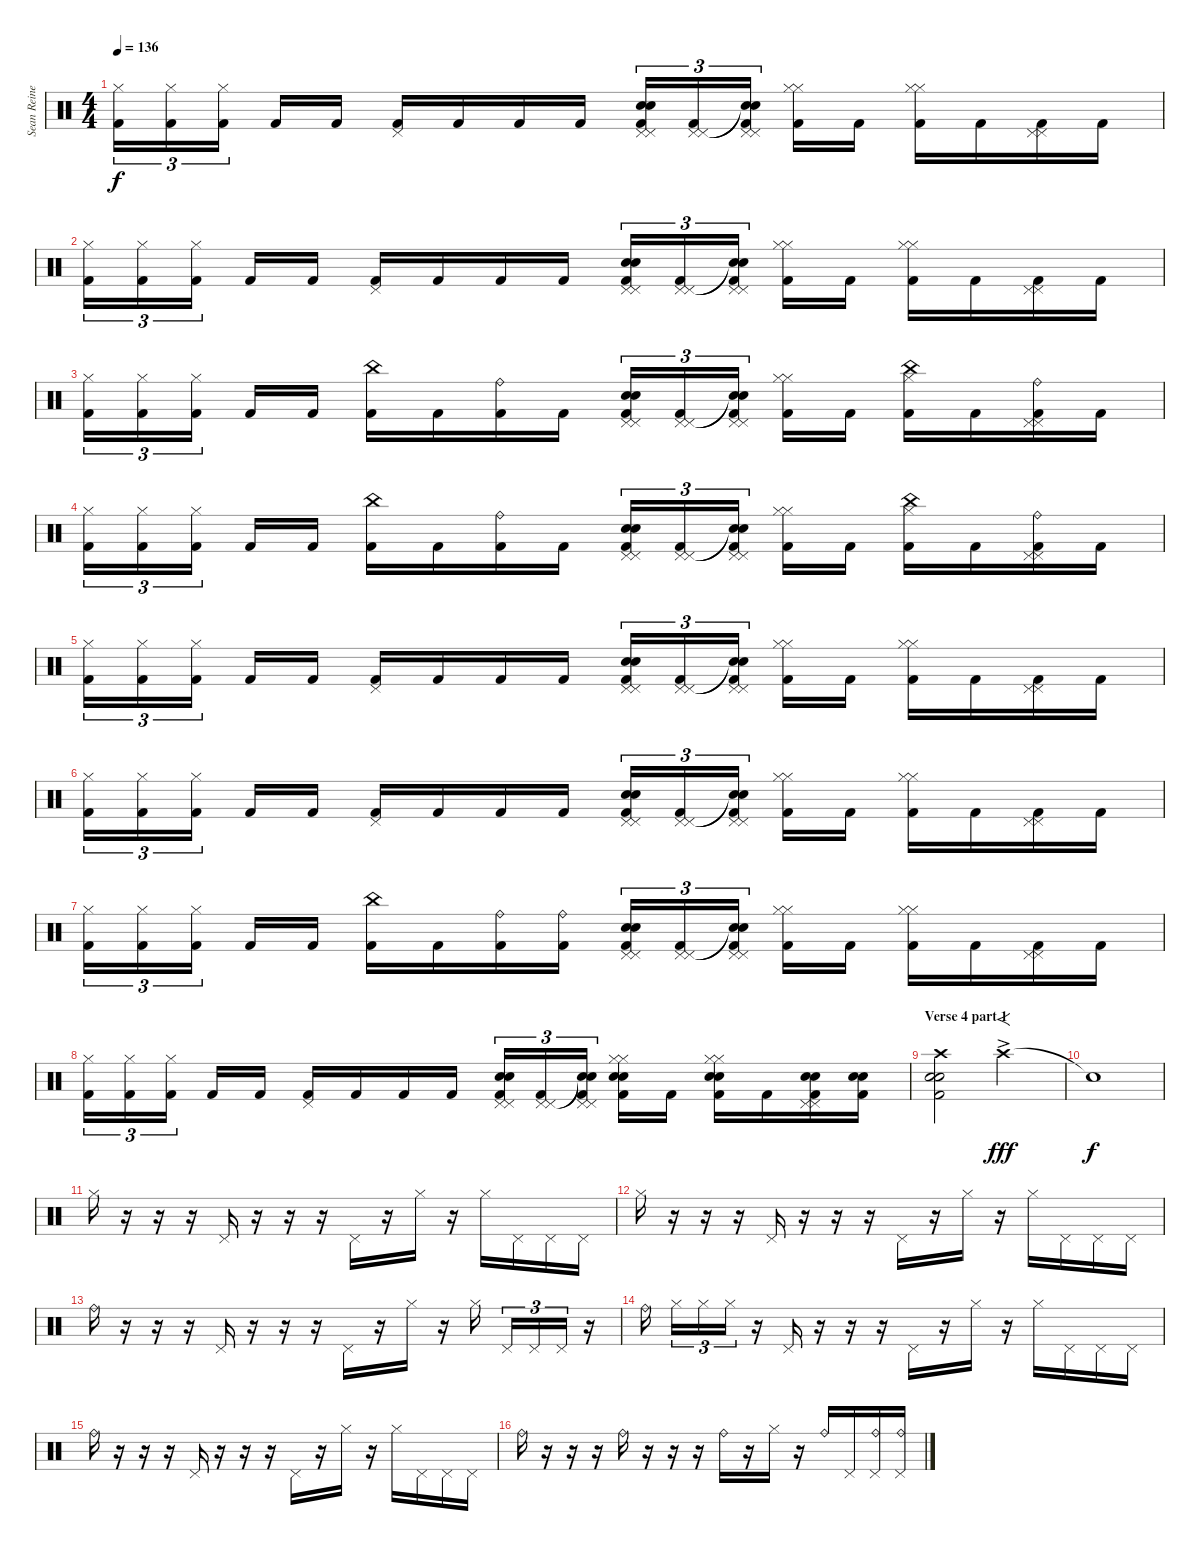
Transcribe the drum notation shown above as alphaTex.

\track ("Sean Reinert" "Sean Reine") {instrument percussion}
\staff {score}
\articulation defaults
\ts (4 4)
\tempo 136
\clef neutral
\ks c
("Hi-Hat (closed)" "Kick (hit) 2").16{tu (3 2) dy f} ("Hi-Hat (closed)" "Kick (hit) 2").16{tu (3 2)} ("Hi-Hat (closed)" "Kick (hit) 2").16{tu (3 2)} "Kick (hit) 2".16 "Kick (hit) 2".16 ("Pedal Hi-Hat (hit)" "Kick (hit) 2").16 "Kick (hit) 2".16 "Kick (hit) 2".16 "Kick (hit) 2".16 ("Electric Snare (hit)" "Snare (hit) 2" "Pedal Hi-Hat (hit)" "Pedal Hi-Hat (hit)" "Kick (hit) 2").16{tu (3 2)} ("Pedal Hi-Hat (hit)" "Pedal Hi-Hat (hit)" "Kick (hit) 2").16{tu (3 2)} ("Snare (hit)"{t} "Snare (hit)"{t} "Pedal Hi-Hat (hit)" "Pedal Hi-Hat (hit)" "Kick (hit) 2").16{tu (3 2)} ("Hi-Hat (closed)" "Hi-Hat (closed)" "Kick (hit) 2").16 "Kick (hit) 2".16 ("Hi-Hat (closed)" "Hi-Hat (closed)" "Kick (hit) 2").16 "Kick (hit) 2".16 ("Pedal Hi-Hat (hit)" "Pedal Hi-Hat (hit)" "Kick (hit) 2").16 "Kick (hit) 2".16 |
("Hi-Hat (closed)" "Kick (hit) 2").16{tu (3 2)} ("Hi-Hat (closed)" "Kick (hit) 2").16{tu (3 2)} ("Hi-Hat (closed)" "Kick (hit) 2").16{tu (3 2)} "Kick (hit) 2".16 "Kick (hit) 2".16 ("Pedal Hi-Hat (hit)" "Kick (hit) 2").16 "Kick (hit) 2".16 "Kick (hit) 2".16 "Kick (hit) 2".16 ("Electric Snare (hit)" "Snare (hit) 2" "Pedal Hi-Hat (hit)" "Pedal Hi-Hat (hit)" "Kick (hit) 2").16{tu (3 2)} ("Pedal Hi-Hat (hit)" "Pedal Hi-Hat (hit)" "Kick (hit) 2").16{tu (3 2)} ("Snare (hit)"{t} "Snare (hit)"{t} "Pedal Hi-Hat (hit)" "Pedal Hi-Hat (hit)" "Kick (hit) 2").16{tu (3 2)} ("Hi-Hat (closed)" "Hi-Hat (closed)" "Kick (hit) 2").16 "Kick (hit) 2".16 ("Hi-Hat (closed)" "Hi-Hat (closed)" "Kick (hit) 2").16 "Kick (hit) 2".16 ("Pedal Hi-Hat (hit)" "Pedal Hi-Hat (hit)" "Kick (hit) 2").16 "Kick (hit) 2".16 |
("Hi-Hat (closed)" "Kick (hit) 2").16{tu (3 2)} ("Hi-Hat (closed)" "Kick (hit) 2").16{tu (3 2)} ("Hi-Hat (closed)" "Kick (hit) 2").16{tu (3 2)} "Kick (hit) 2".16 "Kick (hit) 2".16 ("China (hit)" "Kick (hit) 2").16 "Kick (hit) 2".16 ("Ride (bell)" "Kick (hit) 2").16 "Kick (hit) 2".16 ("Electric Snare (hit)" "Snare (hit) 2" "Pedal Hi-Hat (hit)" "Pedal Hi-Hat (hit)" "Kick (hit) 2").16{tu (3 2)} ("Pedal Hi-Hat (hit)" "Pedal Hi-Hat (hit)" "Kick (hit) 2").16{tu (3 2)} ("Snare (hit)"{t} "Snare (hit)"{t} "Pedal Hi-Hat (hit)" "Pedal Hi-Hat (hit)" "Kick (hit) 2").16{tu (3 2)} ("Hi-Hat (closed)" "Hi-Hat (closed)" "Kick (hit) 2").16 "Kick (hit) 2".16 ("China (hit)" "Hi-Hat (closed)" "Kick (hit) 2").16 "Kick (hit) 2".16 ("Ride (bell)" "Pedal Hi-Hat (hit)" "Pedal Hi-Hat (hit)" "Kick (hit) 2").16 "Kick (hit) 2".16 |
("Hi-Hat (closed)" "Kick (hit) 2").16{tu (3 2)} ("Hi-Hat (closed)" "Kick (hit) 2").16{tu (3 2)} ("Hi-Hat (closed)" "Kick (hit) 2").16{tu (3 2)} "Kick (hit) 2".16 "Kick (hit) 2".16 ("China (hit)" "Kick (hit) 2").16 "Kick (hit) 2".16 ("Ride (bell)" "Kick (hit) 2").16 "Kick (hit) 2".16 ("Electric Snare (hit)" "Snare (hit) 2" "Pedal Hi-Hat (hit)" "Pedal Hi-Hat (hit)" "Kick (hit) 2").16{tu (3 2)} ("Pedal Hi-Hat (hit)" "Pedal Hi-Hat (hit)" "Kick (hit) 2").16{tu (3 2)} ("Snare (hit)"{t} "Snare (hit)"{t} "Pedal Hi-Hat (hit)" "Pedal Hi-Hat (hit)" "Kick (hit) 2").16{tu (3 2)} ("Hi-Hat (closed)" "Hi-Hat (closed)" "Kick (hit) 2").16 "Kick (hit) 2".16 ("China (hit)" "Hi-Hat (closed)" "Kick (hit) 2").16 "Kick (hit) 2".16 ("Ride (bell)" "Pedal Hi-Hat (hit)" "Pedal Hi-Hat (hit)" "Kick (hit) 2").16 "Kick (hit) 2".16 |
("Hi-Hat (closed)" "Kick (hit) 2").16{tu (3 2)} ("Hi-Hat (closed)" "Kick (hit) 2").16{tu (3 2)} ("Hi-Hat (closed)" "Kick (hit) 2").16{tu (3 2)} "Kick (hit) 2".16 "Kick (hit) 2".16 ("Pedal Hi-Hat (hit)" "Kick (hit) 2").16 "Kick (hit) 2".16 "Kick (hit) 2".16 "Kick (hit) 2".16 ("Electric Snare (hit)" "Snare (hit) 2" "Pedal Hi-Hat (hit)" "Pedal Hi-Hat (hit)" "Kick (hit) 2").16{tu (3 2)} ("Pedal Hi-Hat (hit)" "Pedal Hi-Hat (hit)" "Kick (hit) 2").16{tu (3 2)} ("Snare (hit)"{t} "Snare (hit)"{t} "Pedal Hi-Hat (hit)" "Pedal Hi-Hat (hit)" "Kick (hit) 2").16{tu (3 2)} ("Hi-Hat (closed)" "Hi-Hat (closed)" "Kick (hit) 2").16 "Kick (hit) 2".16 ("Hi-Hat (closed)" "Hi-Hat (closed)" "Kick (hit) 2").16 "Kick (hit) 2".16 ("Pedal Hi-Hat (hit)" "Pedal Hi-Hat (hit)" "Kick (hit) 2").16 "Kick (hit) 2".16 |
("Hi-Hat (closed)" "Kick (hit) 2").16{tu (3 2)} ("Hi-Hat (closed)" "Kick (hit) 2").16{tu (3 2)} ("Hi-Hat (closed)" "Kick (hit) 2").16{tu (3 2)} "Kick (hit) 2".16 "Kick (hit) 2".16 ("Pedal Hi-Hat (hit)" "Kick (hit) 2").16 "Kick (hit) 2".16 "Kick (hit) 2".16 "Kick (hit) 2".16 ("Electric Snare (hit)" "Snare (hit) 2" "Pedal Hi-Hat (hit)" "Pedal Hi-Hat (hit)" "Kick (hit) 2").16{tu (3 2)} ("Pedal Hi-Hat (hit)" "Pedal Hi-Hat (hit)" "Kick (hit) 2").16{tu (3 2)} ("Snare (hit)"{t} "Snare (hit)"{t} "Pedal Hi-Hat (hit)" "Pedal Hi-Hat (hit)" "Kick (hit) 2").16{tu (3 2)} ("Hi-Hat (closed)" "Hi-Hat (closed)" "Kick (hit) 2").16 "Kick (hit) 2".16 ("Hi-Hat (closed)" "Hi-Hat (closed)" "Kick (hit) 2").16 "Kick (hit) 2".16 ("Pedal Hi-Hat (hit)" "Pedal Hi-Hat (hit)" "Kick (hit) 2").16 "Kick (hit) 2".16 |
("Hi-Hat (closed)" "Kick (hit) 2").16{tu (3 2)} ("Hi-Hat (closed)" "Kick (hit) 2").16{tu (3 2)} ("Hi-Hat (closed)" "Kick (hit) 2").16{tu (3 2)} "Kick (hit) 2".16 "Kick (hit) 2".16 ("China (hit)" "Kick (hit) 2").16 "Kick (hit) 2".16 ("Ride (bell)" "Kick (hit) 2").16 ("Ride (bell)" "Kick (hit) 2").16 ("Electric Snare (hit)" "Snare (hit) 2" "Pedal Hi-Hat (hit)" "Pedal Hi-Hat (hit)" "Kick (hit) 2").16{tu (3 2)} ("Pedal Hi-Hat (hit)" "Pedal Hi-Hat (hit)" "Kick (hit) 2").16{tu (3 2)} ("Snare (hit)"{t} "Snare (hit)"{t} "Pedal Hi-Hat (hit)" "Pedal Hi-Hat (hit)" "Kick (hit) 2").16{tu (3 2)} ("Hi-Hat (closed)" "Hi-Hat (closed)" "Kick (hit) 2").16 "Kick (hit) 2".16 ("Hi-Hat (closed)" "Hi-Hat (closed)" "Kick (hit) 2").16 "Kick (hit) 2".16 ("Pedal Hi-Hat (hit)" "Pedal Hi-Hat (hit)" "Kick (hit) 2").16 "Kick (hit) 2".16 |
("Hi-Hat (closed)" "Kick (hit) 2").16{tu (3 2)} ("Hi-Hat (closed)" "Kick (hit) 2").16{tu (3 2)} ("Hi-Hat (closed)" "Kick (hit) 2").16{tu (3 2)} "Kick (hit) 2".16 "Kick (hit) 2".16 ("Pedal Hi-Hat (hit)" "Kick (hit) 2").16 "Kick (hit) 2".16 "Kick (hit) 2".16 "Kick (hit) 2".16 ("Electric Snare (hit)" "Snare (hit) 2" "Pedal Hi-Hat (hit)" "Pedal Hi-Hat (hit)" "Kick (hit) 2").16{tu (3 2)} ("Pedal Hi-Hat (hit)" "Pedal Hi-Hat (hit)" "Kick (hit) 2").16{tu (3 2)} ("Snare (hit)"{t} "Snare (hit)"{t} "Pedal Hi-Hat (hit)" "Pedal Hi-Hat (hit)" "Kick (hit) 2").16{tu (3 2)} ("Hi-Hat (closed)" "Hi-Hat (closed)" "Electric Snare (hit)" "Snare (hit) 2" "Kick (hit) 2").16 "Kick (hit) 2".16 ("Hi-Hat (closed)" "Hi-Hat (closed)" "Electric Snare (hit)" "Snare (hit) 2" "Kick (hit) 2").16 "Kick (hit) 2".16 ("Electric Snare (hit)" "Snare (hit) 2" "Pedal Hi-Hat (hit)" "Pedal Hi-Hat (hit)" "Kick (hit) 2").16 ("Electric Snare (hit)" "Snare (hit) 2" "Kick (hit) 2").16 |
\section ("" "Verse 4 part 1")
("Crash high (hit)" "Kick (hit) 2" "Electric Snare (hit)" "Snare (hit) 2").2 "Crash high (hit)"{ac}.2{f dy fff} |
"Snare (hit)"{t}.1{dy f} |
"Hi-Hat (closed)".16 r.16 r.16 r.16 "Pedal Hi-Hat (hit)".16 r.16 r.16 r.16 "Pedal Hi-Hat (hit)".16 r.16 "Hi-Hat (closed)".16 r.16 "Hi-Hat (closed)".16 "Pedal Hi-Hat (hit)".16 "Pedal Hi-Hat (hit)".16 "Pedal Hi-Hat (hit)".16 |
"Hi-Hat (closed)".16 r.16 r.16 r.16 "Pedal Hi-Hat (hit)".16 r.16 r.16 r.16 "Pedal Hi-Hat (hit)".16 r.16 "Hi-Hat (closed)".16 r.16 "Hi-Hat (closed)".16 "Pedal Hi-Hat (hit)".16 "Pedal Hi-Hat (hit)".16 "Pedal Hi-Hat (hit)".16 |
"Ride (bell)".16 r.16 r.16 r.16 "Pedal Hi-Hat (hit)".16 r.16 r.16 r.16 "Pedal Hi-Hat (hit)".16 r.16 "Hi-Hat (closed)".16 r.16 "Hi-Hat (closed)".16 "Pedal Hi-Hat (hit)".16{tu (3 2)} "Pedal Hi-Hat (hit)".16{tu (3 2)} "Pedal Hi-Hat (hit)".16{tu (3 2)} r.16 |
"Ride (bell)".16 "Hi-Hat (closed)".16{tu (3 2)} "Hi-Hat (closed)".16{tu (3 2)} "Hi-Hat (closed)".16{tu (3 2)} r.16 "Pedal Hi-Hat (hit)".16 r.16 r.16 r.16 "Pedal Hi-Hat (hit)".16 r.16 "Hi-Hat (closed)".16 r.16 "Hi-Hat (closed)".16 "Pedal Hi-Hat (hit)".16 "Pedal Hi-Hat (hit)".16 "Pedal Hi-Hat (hit)".16 |
"Ride (bell)".16 r.16 r.16 r.16 "Pedal Hi-Hat (hit)".16 r.16 r.16 r.16 "Pedal Hi-Hat (hit)".16 r.16 "Hi-Hat (closed)".16 r.16 "Hi-Hat (closed)".16 "Pedal Hi-Hat (hit)".16 "Pedal Hi-Hat (hit)".16 "Pedal Hi-Hat (hit)".16 |
"Ride (bell)".16 r.16 r.16 r.16 "Ride (bell)".16 r.16 r.16 r.16 "Ride (bell)".16 r.16 "Hi-Hat (closed)".16 r.16 "Ride (bell)".16 "Pedal Hi-Hat (hit)".16 ("Ride (bell)" "Pedal Hi-Hat (hit)").16 ("Ride (bell)" "Pedal Hi-Hat (hit)").16
